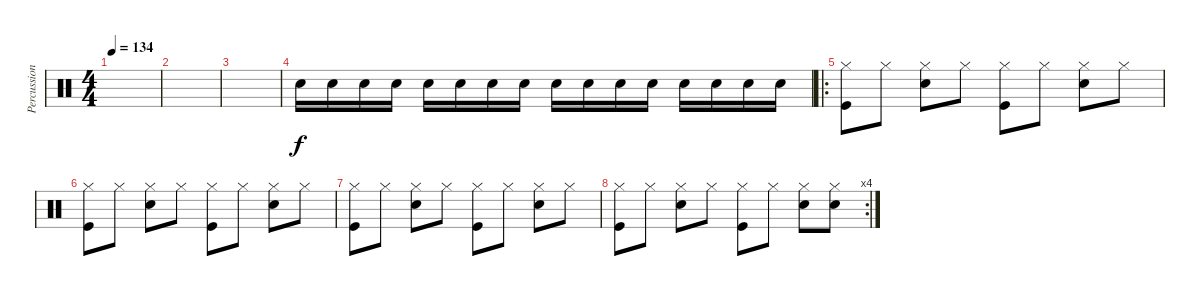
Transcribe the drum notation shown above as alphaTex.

\track ("Percussion" "Percussion") {instrument percussion}
\staff {score}
\articulation defaults
\ts (4 4)
\tempo 134
\clef neutral
\ks c
|
|
|
"Snare (hit) 2".16 "Snare (hit) 2".16 "Snare (hit) 2".16 "Snare (hit) 2".16 "Snare (hit) 2".16 "Snare (hit) 2".16 "Snare (hit) 2".16 "Snare (hit) 2".16 "Snare (hit) 2".16 "Snare (hit) 2".16 "Snare (hit) 2".16 "Snare (hit) 2".16 "Snare (hit) 2".16 "Snare (hit) 2".16 "Snare (hit) 2".16 "Snare (hit) 2".16 |
\ro
("Hi-Hat (closed)" "Kick (hit)").8 "Hi-Hat (closed)".8 ("Hi-Hat (closed)" "Snare (hit) 2").8 "Hi-Hat (closed)".8 ("Hi-Hat (closed)" "Kick (hit)").8 "Hi-Hat (closed)".8 ("Hi-Hat (closed)" "Snare (hit) 2").8 "Hi-Hat (closed)".8 |
("Hi-Hat (closed)" "Kick (hit)").8 "Hi-Hat (closed)".8 ("Hi-Hat (closed)" "Snare (hit) 2").8 "Hi-Hat (closed)".8 ("Hi-Hat (closed)" "Kick (hit)").8 "Hi-Hat (closed)".8 ("Hi-Hat (closed)" "Snare (hit) 2").8 "Hi-Hat (closed)".8 |
("Hi-Hat (closed)" "Kick (hit)").8 "Hi-Hat (closed)".8 ("Hi-Hat (closed)" "Snare (hit) 2").8 "Hi-Hat (closed)".8 ("Hi-Hat (closed)" "Kick (hit)").8 "Hi-Hat (closed)".8 ("Hi-Hat (closed)" "Snare (hit) 2").8 "Hi-Hat (closed)".8 |
\rc 4
("Hi-Hat (closed)" "Kick (hit)").8 "Hi-Hat (closed)".8 ("Hi-Hat (closed)" "Snare (hit) 2").8 "Hi-Hat (closed)".8 ("Hi-Hat (closed)" "Kick (hit)").8 "Hi-Hat (closed)".8 ("Hi-Hat (closed)" "Snare (hit) 2").8 ("Hi-Hat (closed)" "Snare (hit) 2").8
